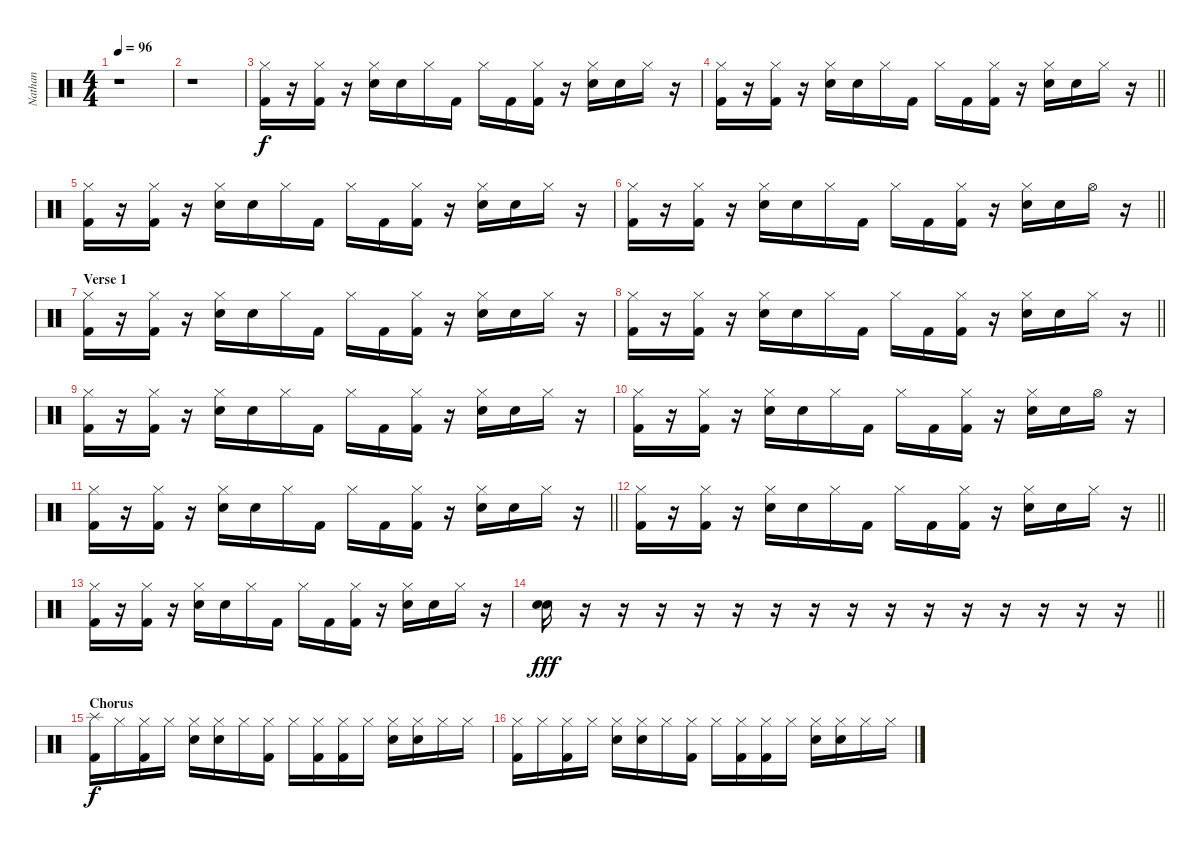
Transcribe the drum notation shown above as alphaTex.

\track ("Nathan" "Nathan") {instrument percussion}
\staff {score}
\articulation defaults
\ts (4 4)
\tempo 96
\clef neutral
\ks c
r.1{dy f} |
r.1 |
("Hi-Hat (closed)" "Kick (hit) 2").16 r.16 ("Hi-Hat (closed)" "Kick (hit) 2").16 r.16 ("Hi-Hat (closed)" "Electric Snare (hit)").16 "Electric Snare (hit)".16 "Hi-Hat (closed)".16 "Kick (hit) 2".16 "Hi-Hat (closed)".16 "Kick (hit) 2".16 ("Hi-Hat (closed)" "Kick (hit) 2").16 r.16 ("Hi-Hat (closed)" "Electric Snare (hit)").16 "Electric Snare (hit)".16 "Hi-Hat (closed)".16 r.16 |
\barLineRight lightlight
("Hi-Hat (closed)" "Kick (hit) 2").16 r.16 ("Hi-Hat (closed)" "Kick (hit) 2").16 r.16 ("Hi-Hat (closed)" "Electric Snare (hit)").16 "Electric Snare (hit)".16 "Hi-Hat (closed)".16 "Kick (hit) 2".16 "Hi-Hat (closed)".16 "Kick (hit) 2".16 ("Hi-Hat (closed)" "Kick (hit) 2").16 r.16 ("Hi-Hat (closed)" "Electric Snare (hit)").16 "Electric Snare (hit)".16 "Hi-Hat (closed)".16 r.16 |
("Hi-Hat (closed)" "Kick (hit) 2").16 r.16 ("Hi-Hat (closed)" "Kick (hit) 2").16 r.16 ("Hi-Hat (closed)" "Electric Snare (hit)").16 "Electric Snare (hit)".16 "Hi-Hat (closed)".16 "Kick (hit) 2".16 "Hi-Hat (closed)".16 "Kick (hit) 2".16 ("Hi-Hat (closed)" "Kick (hit) 2").16 r.16 ("Hi-Hat (closed)" "Electric Snare (hit)").16 "Electric Snare (hit)".16 "Hi-Hat (closed)".16 r.16 |
\barLineRight lightlight
("Hi-Hat (closed)" "Kick (hit) 2").16 r.16 ("Hi-Hat (closed)" "Kick (hit) 2").16 r.16 ("Hi-Hat (closed)" "Electric Snare (hit)").16 "Electric Snare (hit)".16 "Hi-Hat (closed)".16 "Kick (hit) 2".16 "Hi-Hat (closed)".16 "Kick (hit) 2".16 ("Hi-Hat (closed)" "Kick (hit) 2").16 r.16 ("Hi-Hat (closed)" "Electric Snare (hit)").16 "Electric Snare (hit)".16 "Hi-Hat (open)".16 r.16 |
\section ("" "Verse 1")
("Hi-Hat (closed)" "Kick (hit) 2").16 r.16 ("Hi-Hat (closed)" "Kick (hit) 2").16 r.16 ("Hi-Hat (closed)" "Electric Snare (hit)").16 "Electric Snare (hit)".16 "Hi-Hat (closed)".16 "Kick (hit) 2".16 "Hi-Hat (closed)".16 "Kick (hit) 2".16 ("Hi-Hat (closed)" "Kick (hit) 2").16 r.16 ("Hi-Hat (closed)" "Electric Snare (hit)").16 "Electric Snare (hit)".16 "Hi-Hat (closed)".16 r.16 |
\barLineRight lightlight
("Hi-Hat (closed)" "Kick (hit) 2").16 r.16 ("Hi-Hat (closed)" "Kick (hit) 2").16 r.16 ("Hi-Hat (closed)" "Electric Snare (hit)").16 "Electric Snare (hit)".16 "Hi-Hat (closed)".16 "Kick (hit) 2".16 "Hi-Hat (closed)".16 "Kick (hit) 2".16 ("Hi-Hat (closed)" "Kick (hit) 2").16 r.16 ("Hi-Hat (closed)" "Electric Snare (hit)").16 "Electric Snare (hit)".16 "Hi-Hat (closed)".16 r.16 |
("Hi-Hat (closed)" "Kick (hit) 2").16 r.16 ("Hi-Hat (closed)" "Kick (hit) 2").16 r.16 ("Hi-Hat (closed)" "Electric Snare (hit)").16 "Electric Snare (hit)".16 "Hi-Hat (closed)".16 "Kick (hit) 2".16 "Hi-Hat (closed)".16 "Kick (hit) 2".16 ("Hi-Hat (closed)" "Kick (hit) 2").16 r.16 ("Hi-Hat (closed)" "Electric Snare (hit)").16 "Electric Snare (hit)".16 "Hi-Hat (closed)".16 r.16 |
("Hi-Hat (closed)" "Kick (hit) 2").16 r.16 ("Hi-Hat (closed)" "Kick (hit) 2").16 r.16 ("Hi-Hat (closed)" "Electric Snare (hit)").16 "Electric Snare (hit)".16 "Hi-Hat (closed)".16 "Kick (hit) 2".16 "Hi-Hat (closed)".16 "Kick (hit) 2".16 ("Hi-Hat (closed)" "Kick (hit) 2").16 r.16 ("Hi-Hat (closed)" "Electric Snare (hit)").16 "Electric Snare (hit)".16 "Hi-Hat (open)".16 r.16 |
\barLineRight lightlight
("Hi-Hat (closed)" "Kick (hit) 2").16 r.16 ("Hi-Hat (closed)" "Kick (hit) 2").16 r.16 ("Hi-Hat (closed)" "Electric Snare (hit)").16 "Electric Snare (hit)".16 "Hi-Hat (closed)".16 "Kick (hit) 2".16 "Hi-Hat (closed)".16 "Kick (hit) 2".16 ("Hi-Hat (closed)" "Kick (hit) 2").16 r.16 ("Hi-Hat (closed)" "Electric Snare (hit)").16 "Electric Snare (hit)".16 "Hi-Hat (closed)".16 r.16 |
\barLineRight lightlight
("Hi-Hat (closed)" "Kick (hit) 2").16 r.16 ("Hi-Hat (closed)" "Kick (hit) 2").16 r.16 ("Hi-Hat (closed)" "Electric Snare (hit)").16 "Electric Snare (hit)".16 "Hi-Hat (closed)".16 "Kick (hit) 2".16 "Hi-Hat (closed)".16 "Kick (hit) 2".16 ("Hi-Hat (closed)" "Kick (hit) 2").16 r.16 ("Hi-Hat (closed)" "Electric Snare (hit)").16 "Electric Snare (hit)".16 "Hi-Hat (closed)".16 r.16 |
("Hi-Hat (closed)" "Kick (hit) 2").16 r.16 ("Hi-Hat (closed)" "Kick (hit) 2").16 r.16 ("Hi-Hat (closed)" "Electric Snare (hit)").16 "Electric Snare (hit)".16 "Hi-Hat (closed)".16 "Kick (hit) 2".16 "Hi-Hat (closed)".16 "Kick (hit) 2".16 ("Hi-Hat (closed)" "Kick (hit) 2").16 r.16 ("Hi-Hat (closed)" "Electric Snare (hit)").16 "Electric Snare (hit)".16 "Hi-Hat (closed)".16 r.16 |
\barLineRight lightlight
("Electric Snare (hit)" "Snare (hit) 2").16{dy fff} r.16 r.16 r.16 r.16 r.16 r.16 r.16 r.16 r.16 r.16 r.16 r.16 r.16 r.16 r.16 |
\section ("" "Chorus")
("Splash (hit)" "Kick (hit) 2").16{dy f} "Hi-Hat (closed)".16 ("Hi-Hat (closed)" "Kick (hit) 2").16 "Hi-Hat (closed)".16 ("Hi-Hat (closed)" "Electric Snare (hit)").16 ("Hi-Hat (closed)" "Electric Snare (hit)").16 "Hi-Hat (closed)".16 ("Hi-Hat (closed)" "Kick (hit) 2").16 "Hi-Hat (closed)".16 ("Hi-Hat (closed)" "Kick (hit) 2").16 ("Hi-Hat (closed)" "Kick (hit) 2").16 "Hi-Hat (closed)".16 ("Hi-Hat (closed)" "Electric Snare (hit)").16 ("Hi-Hat (closed)" "Electric Snare (hit)").16 "Hi-Hat (closed)".16 "Hi-Hat (closed)".16 |
("Hi-Hat (closed)" "Kick (hit) 2").16 "Hi-Hat (closed)".16 ("Hi-Hat (closed)" "Kick (hit) 2").16 "Hi-Hat (closed)".16 ("Hi-Hat (closed)" "Electric Snare (hit)").16 ("Hi-Hat (closed)" "Electric Snare (hit)").16 "Hi-Hat (closed)".16 ("Hi-Hat (closed)" "Kick (hit) 2").16 "Hi-Hat (closed)".16 ("Hi-Hat (closed)" "Kick (hit) 2").16 ("Hi-Hat (closed)" "Kick (hit) 2").16 "Hi-Hat (closed)".16 ("Hi-Hat (closed)" "Electric Snare (hit)").16 ("Hi-Hat (closed)" "Electric Snare (hit)").16 "Hi-Hat (closed)".16 "Hi-Hat (closed)".16
